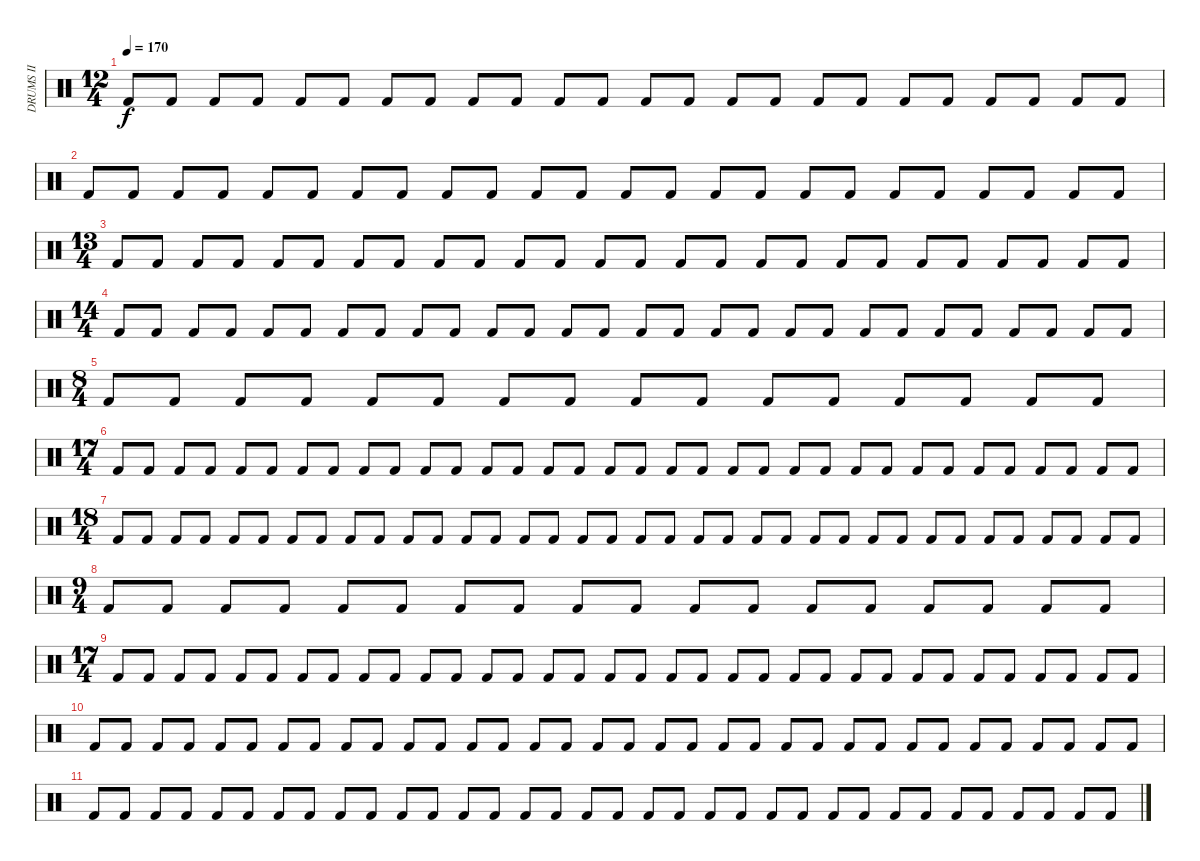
\track ("DRUMS II" "DRUMS II") {instrument percussion}
\staff {score}
\articulation defaults
\ts (12 4)
\tempo 170
\clef neutral
\ks c "Kick (hit) 2".8{dy f} "Kick (hit) 2".8 "Kick (hit) 2".8 "Kick (hit) 2".8 "Kick (hit) 2".8 "Kick (hit) 2".8 "Kick (hit) 2".8 "Kick (hit) 2".8 "Kick (hit) 2".8 "Kick (hit) 2".8 "Kick (hit) 2".8 "Kick (hit) 2".8 "Kick (hit) 2".8 "Kick (hit) 2".8 "Kick (hit) 2".8 "Kick (hit) 2".8 "Kick (hit) 2".8 "Kick (hit) 2".8 "Kick (hit) 2".8 "Kick (hit) 2".8 "Kick (hit) 2".8 "Kick (hit) 2".8 "Kick (hit) 2".8 "Kick (hit) 2".8
|
"Kick (hit) 2".8 "Kick (hit) 2".8 "Kick (hit) 2".8 "Kick (hit) 2".8 "Kick (hit) 2".8 "Kick (hit) 2".8 "Kick (hit) 2".8 "Kick (hit) 2".8 "Kick (hit) 2".8 "Kick (hit) 2".8 "Kick (hit) 2".8 "Kick (hit) 2".8 "Kick (hit) 2".8 "Kick (hit) 2".8 "Kick (hit) 2".8 "Kick (hit) 2".8 "Kick (hit) 2".8 "Kick (hit) 2".8 "Kick (hit) 2".8 "Kick (hit) 2".8 "Kick (hit) 2".8 "Kick (hit) 2".8 "Kick (hit) 2".8 "Kick (hit) 2".8 |
\ts (13 4)
"Kick (hit) 2".8 "Kick (hit) 2".8 "Kick (hit) 2".8 "Kick (hit) 2".8 "Kick (hit) 2".8 "Kick (hit) 2".8 "Kick (hit) 2".8 "Kick (hit) 2".8 "Kick (hit) 2".8 "Kick (hit) 2".8 "Kick (hit) 2".8 "Kick (hit) 2".8 "Kick (hit) 2".8 "Kick (hit) 2".8 "Kick (hit) 2".8 "Kick (hit) 2".8 "Kick (hit) 2".8 "Kick (hit) 2".8 "Kick (hit) 2".8 "Kick (hit) 2".8 "Kick (hit) 2".8 "Kick (hit) 2".8 "Kick (hit) 2".8 "Kick (hit) 2".8 "Kick (hit) 2".8 "Kick (hit) 2".8 |
\ts (14 4)
"Kick (hit) 2".8 "Kick (hit) 2".8 "Kick (hit) 2".8 "Kick (hit) 2".8 "Kick (hit) 2".8 "Kick (hit) 2".8 "Kick (hit) 2".8 "Kick (hit) 2".8 "Kick (hit) 2".8 "Kick (hit) 2".8 "Kick (hit) 2".8 "Kick (hit) 2".8 "Kick (hit) 2".8 "Kick (hit) 2".8 "Kick (hit) 2".8 "Kick (hit) 2".8 "Kick (hit) 2".8 "Kick (hit) 2".8 "Kick (hit) 2".8 "Kick (hit) 2".8 "Kick (hit) 2".8 "Kick (hit) 2".8 "Kick (hit) 2".8 "Kick (hit) 2".8 "Kick (hit) 2".8 "Kick (hit) 2".8 "Kick (hit) 2".8 "Kick (hit) 2".8 |
\ts (8 4)
"Kick (hit) 2".8 "Kick (hit) 2".8 "Kick (hit) 2".8 "Kick (hit) 2".8 "Kick (hit) 2".8 "Kick (hit) 2".8 "Kick (hit) 2".8 "Kick (hit) 2".8 "Kick (hit) 2".8 "Kick (hit) 2".8 "Kick (hit) 2".8 "Kick (hit) 2".8 "Kick (hit) 2".8 "Kick (hit) 2".8 "Kick (hit) 2".8 "Kick (hit) 2".8 |
\ts (17 4)
"Kick (hit) 2".8 "Kick (hit) 2".8 "Kick (hit) 2".8 "Kick (hit) 2".8 "Kick (hit) 2".8 "Kick (hit) 2".8 "Kick (hit) 2".8 "Kick (hit) 2".8 "Kick (hit) 2".8 "Kick (hit) 2".8 "Kick (hit) 2".8 "Kick (hit) 2".8 "Kick (hit) 2".8 "Kick (hit) 2".8 "Kick (hit) 2".8 "Kick (hit) 2".8 "Kick (hit) 2".8 "Kick (hit) 2".8 "Kick (hit) 2".8 "Kick (hit) 2".8 "Kick (hit) 2".8 "Kick (hit) 2".8 "Kick (hit) 2".8 "Kick (hit) 2".8 "Kick (hit) 2".8 "Kick (hit) 2".8 "Kick (hit) 2".8 "Kick (hit) 2".8 "Kick (hit) 2".8 "Kick (hit) 2".8 "Kick (hit) 2".8 "Kick (hit) 2".8 "Kick (hit) 2".8 "Kick (hit) 2".8 |
\ts (18 4)
"Kick (hit) 2".8 "Kick (hit) 2".8 "Kick (hit) 2".8 "Kick (hit) 2".8 "Kick (hit) 2".8 "Kick (hit) 2".8 "Kick (hit) 2".8 "Kick (hit) 2".8 "Kick (hit) 2".8 "Kick (hit) 2".8 "Kick (hit) 2".8 "Kick (hit) 2".8 "Kick (hit) 2".8 "Kick (hit) 2".8 "Kick (hit) 2".8 "Kick (hit) 2".8 "Kick (hit) 2".8 "Kick (hit) 2".8 "Kick (hit) 2".8 "Kick (hit) 2".8 "Kick (hit) 2".8 "Kick (hit) 2".8 "Kick (hit) 2".8 "Kick (hit) 2".8 "Kick (hit) 2".8 "Kick (hit) 2".8 "Kick (hit) 2".8 "Kick (hit) 2".8 "Kick (hit) 2".8 "Kick (hit) 2".8 "Kick (hit) 2".8 "Kick (hit) 2".8 "Kick (hit) 2".8 "Kick (hit) 2".8 "Kick (hit) 2".8 "Kick (hit) 2".8 |
\ts (9 4)
"Kick (hit) 2".8 "Kick (hit) 2".8 "Kick (hit) 2".8 "Kick (hit) 2".8 "Kick (hit) 2".8 "Kick (hit) 2".8 "Kick (hit) 2".8 "Kick (hit) 2".8 "Kick (hit) 2".8 "Kick (hit) 2".8 "Kick (hit) 2".8 "Kick (hit) 2".8 "Kick (hit) 2".8 "Kick (hit) 2".8 "Kick (hit) 2".8 "Kick (hit) 2".8 "Kick (hit) 2".8 "Kick (hit) 2".8 |
\ts (17 4)
"Kick (hit) 2".8 "Kick (hit) 2".8 "Kick (hit) 2".8 "Kick (hit) 2".8 "Kick (hit) 2".8 "Kick (hit) 2".8 "Kick (hit) 2".8 "Kick (hit) 2".8 "Kick (hit) 2".8 "Kick (hit) 2".8 "Kick (hit) 2".8 "Kick (hit) 2".8 "Kick (hit) 2".8 "Kick (hit) 2".8 "Kick (hit) 2".8 "Kick (hit) 2".8 "Kick (hit) 2".8 "Kick (hit) 2".8 "Kick (hit) 2".8 "Kick (hit) 2".8 "Kick (hit) 2".8 "Kick (hit) 2".8 "Kick (hit) 2".8 "Kick (hit) 2".8 "Kick (hit) 2".8 "Kick (hit) 2".8 "Kick (hit) 2".8 "Kick (hit) 2".8 "Kick (hit) 2".8 "Kick (hit) 2".8 "Kick (hit) 2".8 "Kick (hit) 2".8 "Kick (hit) 2".8 "Kick (hit) 2".8 |
"Kick (hit) 2".8{volume 8} "Kick (hit) 2".8 "Kick (hit) 2".8 "Kick (hit) 2".8 "Kick (hit) 2".8 "Kick (hit) 2".8 "Kick (hit) 2".8 "Kick (hit) 2".8 "Kick (hit) 2".8 "Kick (hit) 2".8 "Kick (hit) 2".8 "Kick (hit) 2".8 "Kick (hit) 2".8 "Kick (hit) 2".8 "Kick (hit) 2".8 "Kick (hit) 2".8 "Kick (hit) 2".8 "Kick (hit) 2".8 "Kick (hit) 2".8 "Kick (hit) 2".8 "Kick (hit) 2".8 "Kick (hit) 2".8 "Kick (hit) 2".8 "Kick (hit) 2".8 "Kick (hit) 2".8 "Kick (hit) 2".8 "Kick (hit) 2".8 "Kick (hit) 2".8 "Kick (hit) 2".8 "Kick (hit) 2".8 "Kick (hit) 2".8 "Kick (hit) 2".8 "Kick (hit) 2".8 "Kick (hit) 2".8 |
"Kick (hit) 2".8{volume 4} "Kick (hit) 2".8 "Kick (hit) 2".8 "Kick (hit) 2".8 "Kick (hit) 2".8 "Kick (hit) 2".8 "Kick (hit) 2".8 "Kick (hit) 2".8 "Kick (hit) 2".8 "Kick (hit) 2".8 "Kick (hit) 2".8 "Kick (hit) 2".8 "Kick (hit) 2".8 "Kick (hit) 2".8 "Kick (hit) 2".8 "Kick (hit) 2".8 "Kick (hit) 2".8 "Kick (hit) 2".8 "Kick (hit) 2".8 "Kick (hit) 2".8 "Kick (hit) 2".8 "Kick (hit) 2".8 "Kick (hit) 2".8 "Kick (hit) 2".8 "Kick (hit) 2".8 "Kick (hit) 2".8 "Kick (hit) 2".8 "Kick (hit) 2".8 "Kick (hit) 2".8 "Kick (hit) 2".8 "Kick (hit) 2".8 "Kick (hit) 2".8 "Kick (hit) 2".8 "Kick (hit) 2".8
